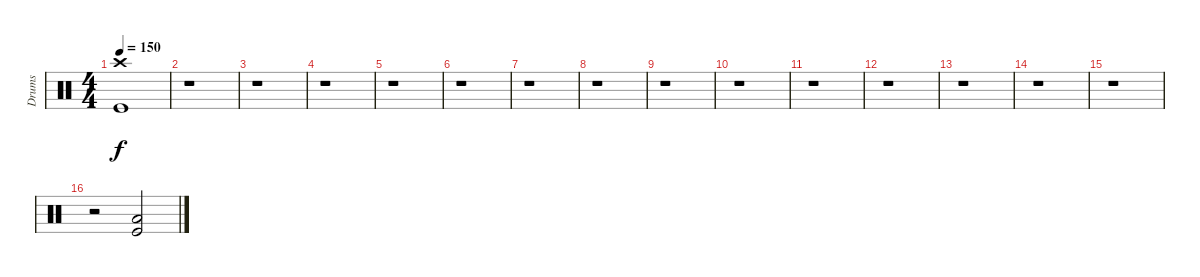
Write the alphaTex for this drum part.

\track ("Drums" "Drums") {instrument percussion}
\staff {score}
\articulation defaults
\ts (4 4)
\tempo 150
\clef neutral
\ks c
("Crash high (hit)" "Kick (hit)").1{dy f} |
r.1 |
r.1 |
r.1 |
r.1 |
r.1 |
r.1 |
r.1 |
r.1 |
r.1 |
r.1 |
r.1 |
r.1 |
r.1 |
r.1 |
r.2 ("Low Floor Tom (hit)" "Kick (hit)").2
